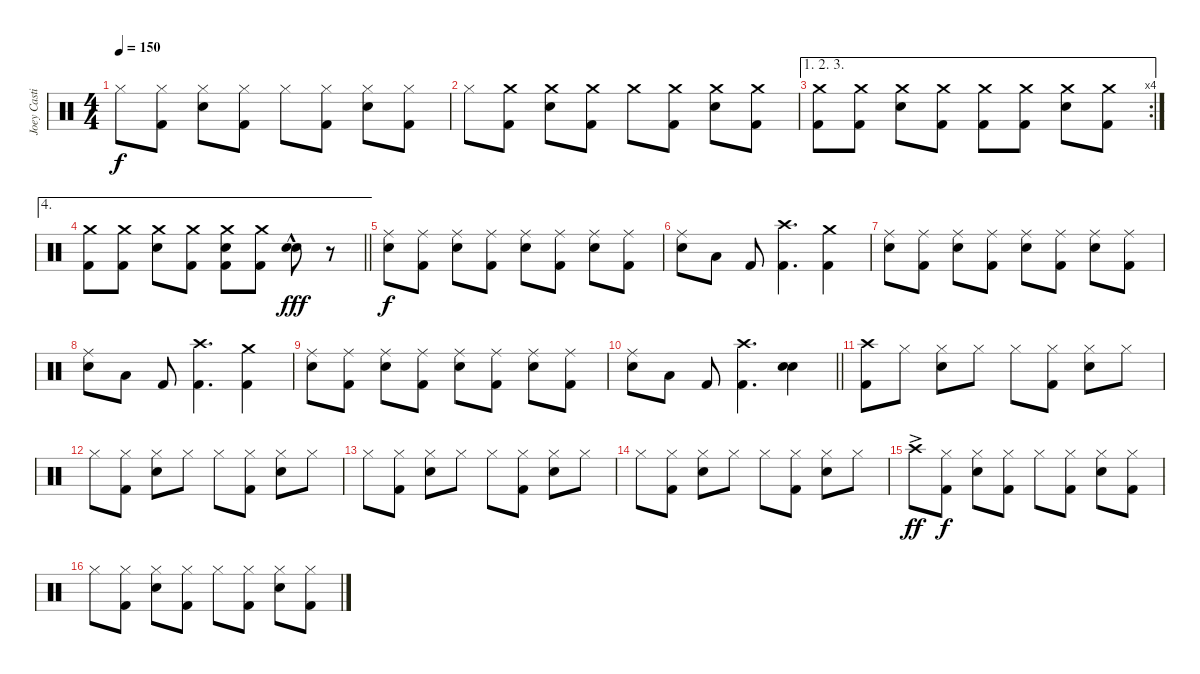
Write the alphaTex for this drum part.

\track ("Joey Castillo" "Joey Casti") {instrument percussion}
\staff {score}
\articulation defaults
\ts (4 4)
\tempo 150
\clef neutral
\ks c "Hi-Hat (closed)".8{dy f}
("Hi-Hat (closed)" "Kick (hit) 2").8 ("Hi-Hat (closed)" "Snare (hit) 2").8 ("Hi-Hat (closed)" "Kick (hit) 2").8 "Hi-Hat (closed)".8 ("Hi-Hat (closed)" "Kick (hit) 2").8 ("Hi-Hat (closed)" "Snare (hit) 2").8 ("Hi-Hat (closed)" "Kick (hit) 2").8 |
"Hi-Hat (closed)".8 ("Crash medium (hit)" "Kick (hit) 2").8 ("Crash medium (hit)" "Snare (hit) 2").8 ("Crash medium (hit)" "Kick (hit) 2").8 "Crash medium (hit)".8 ("Crash medium (hit)" "Kick (hit) 2").8 ("Crash medium (hit)" "Snare (hit) 2").8 ("Crash medium (hit)" "Kick (hit) 2").8 |
\ae (1 2 3)
\rc 4
("Crash medium (hit)" "Kick (hit) 2").8 ("Crash medium (hit)" "Kick (hit) 2").8 ("Crash medium (hit)" "Snare (hit) 2").8 ("Crash medium (hit)" "Kick (hit) 2").8 ("Crash medium (hit)" "Kick (hit) 2").8 ("Crash medium (hit)" "Kick (hit) 2").8 ("Crash medium (hit)" "Snare (hit) 2").8 ("Crash medium (hit)" "Kick (hit) 2").8 |
\ae 4
\barLineRight lightlight
("Crash medium (hit)" "Kick (hit) 2").8 ("Crash medium (hit)" "Kick (hit) 2").8 ("Crash medium (hit)" "Snare (hit) 2").8 ("Crash medium (hit)" "Kick (hit) 2").8 ("Crash medium (hit)" "Snare (hit) 2" "Kick (hit) 2").8 ("Crash medium (hit)" "Kick (hit) 2").8 ("Snare (hit) 2"{hac} "Snare (hit) 2"{hac}).8{bd 240 dy fff} r.8 |
("Ride (middle)" "Snare (hit) 2").8{dy f} ("Ride (middle)" "Kick (hit) 2").8 ("Ride (middle)" "Snare (hit) 2").8 ("Ride (middle)" "Kick (hit) 2").8 ("Ride (middle)" "Snare (hit) 2").8 ("Ride (middle)" "Kick (hit) 2").8 ("Ride (middle)" "Snare (hit) 2").8 ("Ride (middle)" "Kick (hit) 2").8 |
("Ride (middle)" "Snare (hit) 2").8 "Low Tom (hit)".8 "Kick (hit) 2".8 ("Crash high (hit)" "Kick (hit) 2").4{d} ("Crash medium (hit)" "Kick (hit) 2").4 |
("Ride (middle)" "Snare (hit) 2").8 ("Ride (middle)" "Kick (hit) 2").8 ("Ride (middle)" "Snare (hit) 2").8 ("Ride (middle)" "Kick (hit) 2").8 ("Ride (middle)" "Snare (hit) 2").8 ("Ride (middle)" "Kick (hit) 2").8 ("Ride (middle)" "Snare (hit) 2").8 ("Ride (middle)" "Kick (hit) 2").8 |
("Ride (middle)" "Snare (hit) 2").8 "Low Tom (hit)".8 "Kick (hit) 2".8 ("Crash high (hit)" "Kick (hit) 2").4{d} ("Crash medium (hit)" "Kick (hit) 2").4 |
("Ride (middle)" "Snare (hit) 2").8 ("Ride (middle)" "Kick (hit) 2").8 ("Ride (middle)" "Snare (hit) 2").8 ("Ride (middle)" "Kick (hit) 2").8 ("Ride (middle)" "Snare (hit) 2").8 ("Ride (middle)" "Kick (hit) 2").8 ("Ride (middle)" "Snare (hit) 2").8 ("Ride (middle)" "Kick (hit) 2").8 |
\barLineRight lightlight
("Ride (middle)" "Snare (hit) 2").8 "Low Tom (hit)".8 "Kick (hit) 2".8 ("Crash high (hit)" "Kick (hit) 2").4{d} ("Snare (hit) 2" "Snare (hit) 2").4{bd 240} |
("Crash high (hit)" "Kick (hit) 2").8 "Hi-Hat (closed)".8 ("Hi-Hat (closed)" "Snare (hit) 2").8 "Hi-Hat (closed)".8 "Hi-Hat (closed)".8 ("Hi-Hat (closed)" "Kick (hit) 2").8 ("Hi-Hat (closed)" "Snare (hit) 2").8 "Hi-Hat (closed)".8 |
"Hi-Hat (closed)".8 ("Hi-Hat (closed)" "Kick (hit) 2").8 ("Hi-Hat (closed)" "Snare (hit) 2").8 "Hi-Hat (closed)".8 "Hi-Hat (closed)".8 ("Hi-Hat (closed)" "Kick (hit) 2").8 ("Hi-Hat (closed)" "Snare (hit) 2").8 "Hi-Hat (closed)".8 |
"Hi-Hat (closed)".8 ("Hi-Hat (closed)" "Kick (hit) 2").8 ("Hi-Hat (closed)" "Snare (hit) 2").8 "Hi-Hat (closed)".8 "Hi-Hat (closed)".8 ("Hi-Hat (closed)" "Kick (hit) 2").8 ("Hi-Hat (closed)" "Snare (hit) 2").8 "Hi-Hat (closed)".8 |
"Hi-Hat (closed)".8 ("Hi-Hat (closed)" "Kick (hit) 2").8 ("Hi-Hat (closed)" "Snare (hit) 2").8 "Hi-Hat (closed)".8 "Hi-Hat (closed)".8 ("Hi-Hat (closed)" "Kick (hit) 2").8 ("Hi-Hat (closed)" "Snare (hit) 2").8 "Hi-Hat (closed)".8 |
"Crash high (hit)"{ac}.8{dy ff} ("Hi-Hat (closed)" "Kick (hit) 2").8{dy f} ("Hi-Hat (closed)" "Snare (hit) 2").8 ("Hi-Hat (closed)" "Kick (hit) 2").8 "Hi-Hat (closed)".8 ("Hi-Hat (closed)" "Kick (hit) 2").8 ("Hi-Hat (closed)" "Snare (hit) 2").8 ("Hi-Hat (closed)" "Kick (hit) 2").8 |
"Hi-Hat (closed)".8 ("Hi-Hat (closed)" "Kick (hit) 2").8 ("Hi-Hat (closed)" "Snare (hit) 2").8 ("Hi-Hat (closed)" "Kick (hit) 2").8 "Hi-Hat (closed)".8 ("Hi-Hat (closed)" "Kick (hit) 2").8 ("Hi-Hat (closed)" "Snare (hit) 2").8 ("Hi-Hat (closed)" "Kick (hit) 2").8
